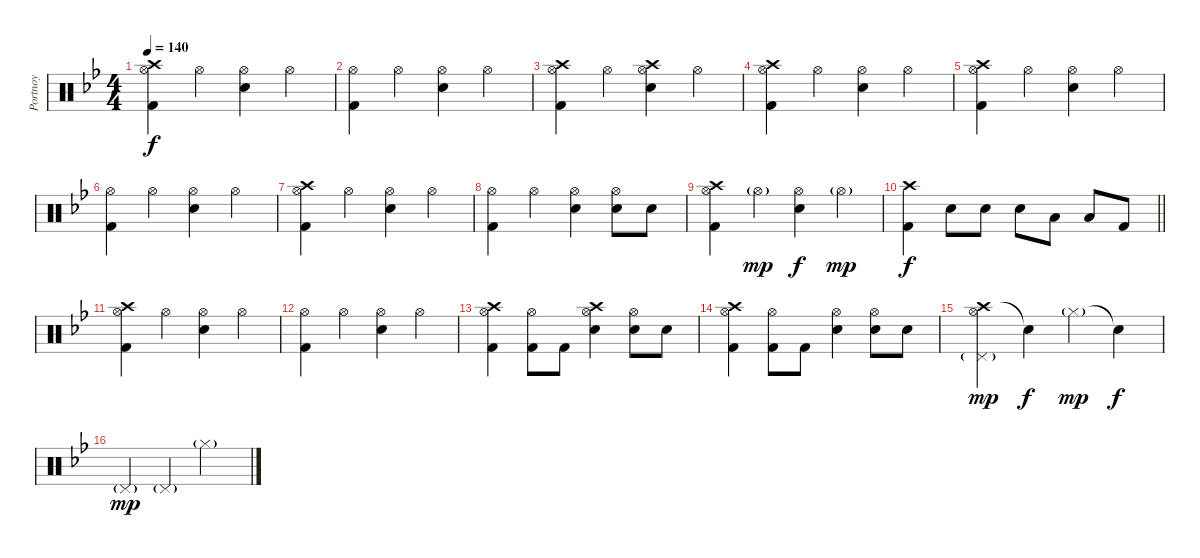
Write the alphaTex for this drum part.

\track ("Portnoy" "Portnoy") {instrument percussion}
\staff {score}
\articulation defaults
\ts (4 4)
\tempo 140
\clef neutral
\ks bb
("Crash high (hit)" "Hi-Hat (open)" "Kick (hit) 2").4{dy f} "Hi-Hat (open)".4 ("Hi-Hat (open)" "Snare (hit) 2").4 "Hi-Hat (open)".4 |
("Hi-Hat (open)" "Kick (hit) 2").4 "Hi-Hat (open)".4 ("Hi-Hat (open)" "Snare (hit) 2").4 "Hi-Hat (open)".4 |
("Crash high (hit)" "Hi-Hat (open)" "Kick (hit) 2").4 "Hi-Hat (open)".4 ("Crash high (hit)" "Hi-Hat (open)" "Snare (hit) 2").4 "Hi-Hat (open)".4 |
("Crash high (hit)" "Hi-Hat (open)" "Kick (hit) 2").4 "Hi-Hat (open)".4 ("Hi-Hat (open)" "Snare (hit) 2").4 "Hi-Hat (open)".4 |
("Crash high (hit)" "Hi-Hat (open)" "Kick (hit) 2").4 "Hi-Hat (open)".4 ("Hi-Hat (open)" "Snare (hit) 2").4 "Hi-Hat (open)".4 |
("Hi-Hat (open)" "Kick (hit) 2").4 "Hi-Hat (open)".4 ("Hi-Hat (open)" "Snare (hit) 2").4 "Hi-Hat (open)".4 |
("Crash high (hit)" "Hi-Hat (open)" "Kick (hit) 2").4 "Hi-Hat (open)".4 ("Hi-Hat (open)" "Snare (hit) 2").4 "Hi-Hat (open)".4 |
("Hi-Hat (open)" "Kick (hit) 2").4 "Hi-Hat (open)".4 ("Hi-Hat (open)" "Snare (hit) 2").4 ("Hi-Hat (open)" "Snare (hit) 2").8 "Snare (hit) 2".8 |
("Crash high (hit)" "Hi-Hat (open)" "Kick (hit) 2").4 "Hi-Hat (open)"{g}.4{dy mp} ("Hi-Hat (open)" "Snare (hit) 2").4{dy f} "Hi-Hat (open)"{g}.4{dy mp} |
\barLineRight lightlight
("Crash high (hit)" "Kick (hit) 2").4{dy f} "Snare (hit) 2".8 "Snare (hit) 2".8 "Snare (hit) 2".8 "Low Tom (hit)".8 "Low Floor Tom (hit)".8 "Kick (hit) 2".8 |
("Crash high (hit)" "Hi-Hat (open)" "Kick (hit) 2").4 "Hi-Hat (open)".4 ("Hi-Hat (open)" "Snare (hit) 2").4 "Hi-Hat (open)".4 |
("Hi-Hat (open)" "Kick (hit) 2").4 "Hi-Hat (open)".4 ("Hi-Hat (open)" "Snare (hit) 2").4 "Hi-Hat (open)".4 |
("Crash high (hit)" "Hi-Hat (open)" "Kick (hit) 2").4 ("Hi-Hat (open)" "Kick (hit) 2").8 "Kick (hit) 2".8 ("Crash high (hit)" "Hi-Hat (open)" "Snare (hit) 2").4 ("Snare (hit) 2" "Hi-Hat (open)").8 "Snare (hit) 2".8 |
("Crash high (hit)" "Hi-Hat (open)" "Kick (hit) 2").4 ("Hi-Hat (open)" "Kick (hit) 2").8 "Kick (hit) 2".8 ("Hi-Hat (open)" "Snare (hit) 2").4 ("Snare (hit) 2" "Hi-Hat (open)").8 "Snare (hit) 2".8 |
("Crash high (hit)" "Hi-Hat (open)" "Pedal Hi-Hat (hit)"{g}).4{dy mp} "Snare (hit)"{t}.4{dy f} "Hi-Hat (closed)"{g}.4{dy mp} "Snare (hit)"{t}.4{dy f} |
"Pedal Hi-Hat (hit)"{g}.4{dy mp} "Pedal Hi-Hat (hit)"{g}.4 "Hi-Hat (closed)"{g}.2
